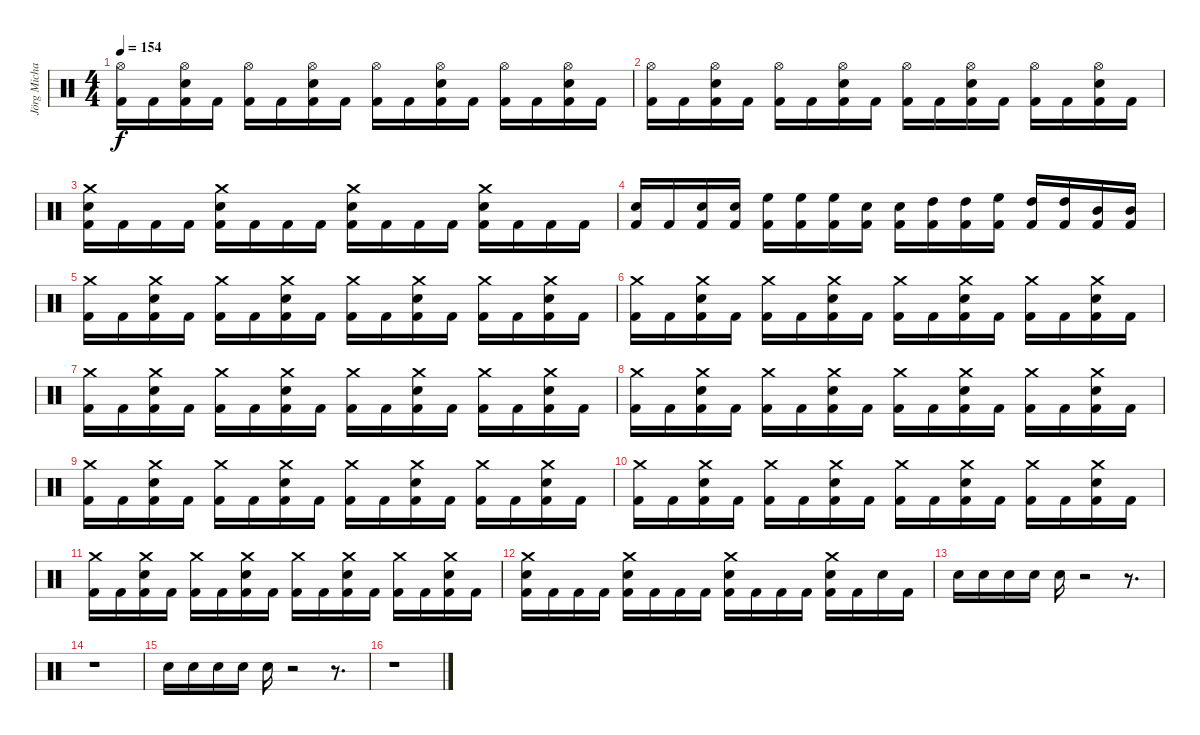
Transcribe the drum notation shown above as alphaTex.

\track ("Jörg Michael" "Jörg Micha") {instrument percussion}
\staff {score}
\articulation defaults
\ts (4 4)
\tempo 154
\clef neutral
\ks c
("Hi-Hat (open)" "Kick (hit) 2").16{dy f} "Kick (hit) 2".16 ("Snare (hit) 2" "Hi-Hat (open)" "Kick (hit) 2").16 "Kick (hit) 2".16 ("Hi-Hat (open)" "Kick (hit) 2").16 "Kick (hit) 2".16 ("Snare (hit) 2" "Hi-Hat (open)" "Kick (hit) 2").16 "Kick (hit) 2".16 ("Hi-Hat (open)" "Kick (hit) 2").16 "Kick (hit) 2".16 ("Snare (hit) 2" "Hi-Hat (open)" "Kick (hit) 2").16 "Kick (hit) 2".16 ("Hi-Hat (open)" "Kick (hit) 2").16 "Kick (hit) 2".16 ("Snare (hit) 2" "Hi-Hat (open)" "Kick (hit) 2").16 "Kick (hit) 2".16 |
("Hi-Hat (open)" "Kick (hit) 2").16 "Kick (hit) 2".16 ("Snare (hit) 2" "Hi-Hat (open)" "Kick (hit) 2").16 "Kick (hit) 2".16 ("Hi-Hat (open)" "Kick (hit) 2").16 "Kick (hit) 2".16 ("Snare (hit) 2" "Hi-Hat (open)" "Kick (hit) 2").16 "Kick (hit) 2".16 ("Hi-Hat (open)" "Kick (hit) 2").16 "Kick (hit) 2".16 ("Snare (hit) 2" "Hi-Hat (open)" "Kick (hit) 2").16 "Kick (hit) 2".16 ("Hi-Hat (open)" "Kick (hit) 2").16 "Kick (hit) 2".16 ("Snare (hit) 2" "Hi-Hat (open)" "Kick (hit) 2").16 "Kick (hit) 2".16 |
("Snare (hit) 2" "Crash medium (hit)" "Kick (hit) 2").16 "Kick (hit) 2".16 "Kick (hit) 2".16 "Kick (hit) 2".16 ("Snare (hit) 2" "Crash medium (hit)" "Kick (hit) 2").16 "Kick (hit) 2".16 "Kick (hit) 2".16 "Kick (hit) 2".16 ("Snare (hit) 2" "Crash medium (hit)" "Kick (hit) 2").16 "Kick (hit) 2".16 "Kick (hit) 2".16 "Kick (hit) 2".16 ("Snare (hit) 2" "Crash medium (hit)" "Kick (hit) 2").16 "Kick (hit) 2".16 "Kick (hit) 2".16 "Kick (hit) 2".16 |
("Snare (hit) 2" "Kick (hit) 2").16 "Kick (hit) 2".16 ("Snare (hit) 2" "Kick (hit) 2").16 ("Snare (hit) 2" "Kick (hit) 2").16 ("High Floor Tom (hit)" "Kick (hit) 2").16 ("High Floor Tom (hit)" "Kick (hit) 2").16 ("High Floor Tom (hit)" "Kick (hit) 2").16 ("Snare (hit) 2" "Kick (hit) 2").16 ("Snare (hit) 2" "Kick (hit) 2").16 ("High Tom (hit)" "Kick (hit) 2").16 ("High Tom (hit)" "Kick (hit) 2").16 ("High Floor Tom (hit)" "Kick (hit) 2").16 ("High Tom (hit)" "Kick (hit) 2").16 ("High Tom (hit)" "Kick (hit) 2").16 ("Mid Tom (hit)" "Kick (hit) 2").16 ("Mid Tom (hit)" "Kick (hit) 2").16 |
("Crash medium (hit)" "Kick (hit) 2").16 "Kick (hit) 2".16 ("Snare (hit) 2" "Crash medium (hit)" "Kick (hit) 2").16 "Kick (hit) 2".16 ("Crash medium (hit)" "Kick (hit) 2").16 "Kick (hit) 2".16 ("Snare (hit) 2" "Crash medium (hit)" "Kick (hit) 2").16 "Kick (hit) 2".16 ("Crash medium (hit)" "Kick (hit) 2").16 "Kick (hit) 2".16 ("Snare (hit) 2" "Crash medium (hit)" "Kick (hit) 2").16 "Kick (hit) 2".16 ("Crash medium (hit)" "Kick (hit) 2").16 "Kick (hit) 2".16 ("Snare (hit) 2" "Crash medium (hit)" "Kick (hit) 2").16 "Kick (hit) 2".16 |
("Crash medium (hit)" "Kick (hit) 2").16 "Kick (hit) 2".16 ("Snare (hit) 2" "Crash medium (hit)" "Kick (hit) 2").16 "Kick (hit) 2".16 ("Crash medium (hit)" "Kick (hit) 2").16 "Kick (hit) 2".16 ("Snare (hit) 2" "Crash medium (hit)" "Kick (hit) 2").16 "Kick (hit) 2".16 ("Crash medium (hit)" "Kick (hit) 2").16 "Kick (hit) 2".16 ("Snare (hit) 2" "Crash medium (hit)" "Kick (hit) 2").16 "Kick (hit) 2".16 ("Crash medium (hit)" "Kick (hit) 2").16 "Kick (hit) 2".16 ("Snare (hit) 2" "Crash medium (hit)" "Kick (hit) 2").16 "Kick (hit) 2".16 |
("Crash medium (hit)" "Kick (hit) 2").16 "Kick (hit) 2".16 ("Snare (hit) 2" "Crash medium (hit)" "Kick (hit) 2").16 "Kick (hit) 2".16 ("Crash medium (hit)" "Kick (hit) 2").16 "Kick (hit) 2".16 ("Snare (hit) 2" "Crash medium (hit)" "Kick (hit) 2").16 "Kick (hit) 2".16 ("Crash medium (hit)" "Kick (hit) 2").16 "Kick (hit) 2".16 ("Snare (hit) 2" "Crash medium (hit)" "Kick (hit) 2").16 "Kick (hit) 2".16 ("Crash medium (hit)" "Kick (hit) 2").16 "Kick (hit) 2".16 ("Snare (hit) 2" "Crash medium (hit)" "Kick (hit) 2").16 "Kick (hit) 2".16 |
("Crash medium (hit)" "Kick (hit) 2").16 "Kick (hit) 2".16 ("Snare (hit) 2" "Crash medium (hit)" "Kick (hit) 2").16 "Kick (hit) 2".16 ("Crash medium (hit)" "Kick (hit) 2").16 "Kick (hit) 2".16 ("Snare (hit) 2" "Crash medium (hit)" "Kick (hit) 2").16 "Kick (hit) 2".16 ("Crash medium (hit)" "Kick (hit) 2").16 "Kick (hit) 2".16 ("Snare (hit) 2" "Crash medium (hit)" "Kick (hit) 2").16 "Kick (hit) 2".16 ("Crash medium (hit)" "Kick (hit) 2").16 "Kick (hit) 2".16 ("Snare (hit) 2" "Crash medium (hit)" "Kick (hit) 2").16 "Kick (hit) 2".16 |
("Crash medium (hit)" "Kick (hit) 2").16 "Kick (hit) 2".16 ("Snare (hit) 2" "Crash medium (hit)" "Kick (hit) 2").16 "Kick (hit) 2".16 ("Crash medium (hit)" "Kick (hit) 2").16 "Kick (hit) 2".16 ("Snare (hit) 2" "Crash medium (hit)" "Kick (hit) 2").16 "Kick (hit) 2".16 ("Crash medium (hit)" "Kick (hit) 2").16 "Kick (hit) 2".16 ("Snare (hit) 2" "Crash medium (hit)" "Kick (hit) 2").16 "Kick (hit) 2".16 ("Crash medium (hit)" "Kick (hit) 2").16 "Kick (hit) 2".16 ("Snare (hit) 2" "Crash medium (hit)" "Kick (hit) 2").16 "Kick (hit) 2".16 |
("Crash medium (hit)" "Kick (hit) 2").16 "Kick (hit) 2".16 ("Snare (hit) 2" "Crash medium (hit)" "Kick (hit) 2").16 "Kick (hit) 2".16 ("Crash medium (hit)" "Kick (hit) 2").16 "Kick (hit) 2".16 ("Snare (hit) 2" "Crash medium (hit)" "Kick (hit) 2").16 "Kick (hit) 2".16 ("Crash medium (hit)" "Kick (hit) 2").16 "Kick (hit) 2".16 ("Snare (hit) 2" "Crash medium (hit)" "Kick (hit) 2").16 "Kick (hit) 2".16 ("Crash medium (hit)" "Kick (hit) 2").16 "Kick (hit) 2".16 ("Snare (hit) 2" "Crash medium (hit)" "Kick (hit) 2").16 "Kick (hit) 2".16 |
("Crash medium (hit)" "Kick (hit) 2").16 "Kick (hit) 2".16 ("Snare (hit) 2" "Crash medium (hit)" "Kick (hit) 2").16 "Kick (hit) 2".16 ("Crash medium (hit)" "Kick (hit) 2").16 "Kick (hit) 2".16 ("Snare (hit) 2" "Crash medium (hit)" "Kick (hit) 2").16 "Kick (hit) 2".16 ("Crash medium (hit)" "Kick (hit) 2").16 "Kick (hit) 2".16 ("Snare (hit) 2" "Crash medium (hit)" "Kick (hit) 2").16 "Kick (hit) 2".16 ("Crash medium (hit)" "Kick (hit) 2").16 "Kick (hit) 2".16 ("Snare (hit) 2" "Crash medium (hit)" "Kick (hit) 2").16 "Kick (hit) 2".16 |
("Snare (hit) 2" "Crash medium (hit)" "Kick (hit) 2").16 "Kick (hit) 2".16 "Kick (hit) 2".16 "Kick (hit) 2".16 ("Snare (hit) 2" "Crash medium (hit)" "Kick (hit) 2").16 "Kick (hit) 2".16 "Kick (hit) 2".16 "Kick (hit) 2".16 ("Snare (hit) 2" "Crash medium (hit)" "Kick (hit) 2").16 "Kick (hit) 2".16 "Kick (hit) 2".16 "Kick (hit) 2".16 ("Snare (hit) 2" "Crash medium (hit)" "Kick (hit) 2").16 "Kick (hit) 2".16 "Snare (hit) 2".16 "Kick (hit) 2".16 |
"Snare (hit) 2".16 "Snare (hit) 2".16 "Snare (hit) 2".16 "Snare (hit) 2".16 "Snare (hit) 2".16 r.2 r.8{d} |
r.1 |
"Snare (hit) 2".16 "Snare (hit) 2".16 "Snare (hit) 2".16 "Snare (hit) 2".16 "Snare (hit) 2".16 r.2 r.8{d} |
r.1
